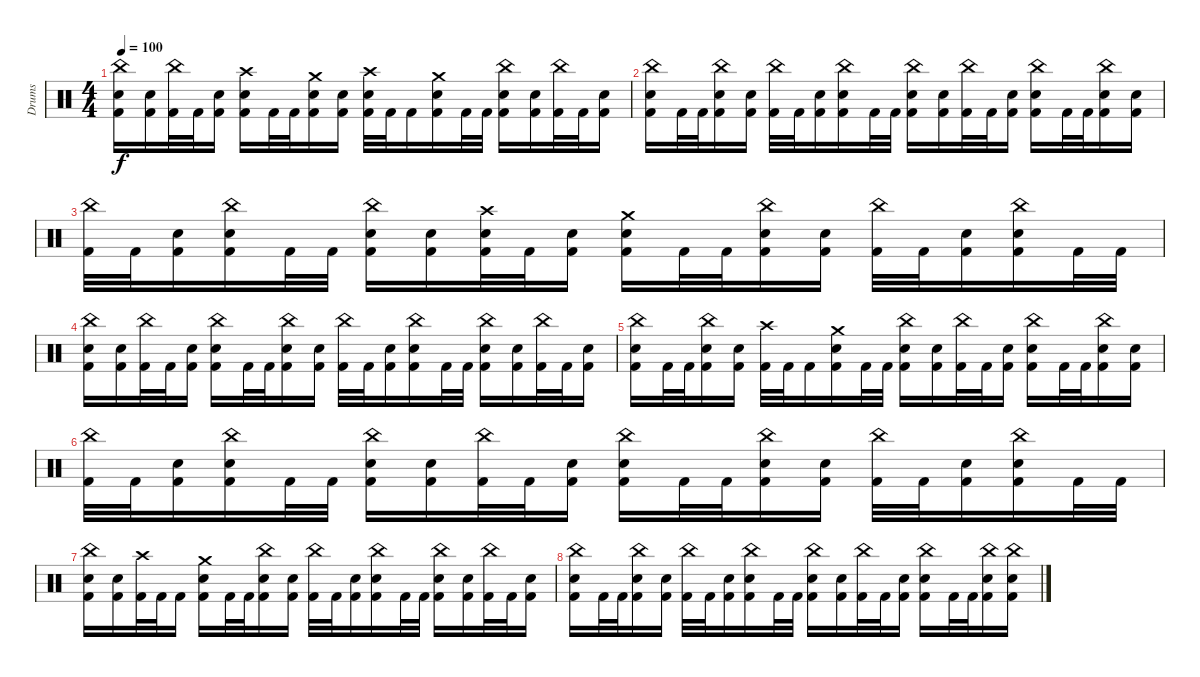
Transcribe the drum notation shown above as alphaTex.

\track ("Drums" "Drums") {instrument percussion}
\staff
\articulation defaults
\ts (4 4)
\tempo 100
\clef neutral
\ks c
("China (hit)" "Electric Snare (hit)" "Kick (hit) 2").16{dy f} ("Electric Snare (hit)" "Kick (hit) 2").16 ("China (hit)" "Kick (hit) 2").32 "Kick (hit) 2".32 ("Electric Snare (hit)" "Kick (hit) 2").16 ("Crash high (hit)" "Electric Snare (hit)" "Kick (hit) 2").16 "Kick (hit) 2".32 "Kick (hit) 2".32 ("Crash medium (hit)" "Electric Snare (hit)" "Kick (hit) 2").16 ("Electric Snare (hit)" "Kick (hit) 2").16 ("Crash high (hit)" "Electric Snare (hit)" "Kick (hit) 2").32 "Kick (hit) 2".32 "Kick (hit) 2".16 ("Crash medium (hit)" "Electric Snare (hit)" "Kick (hit) 2").16 "Kick (hit) 2".32 "Kick (hit) 2".32 ("China (hit)" "Electric Snare (hit)" "Kick (hit) 2").16 ("Electric Snare (hit)" "Kick (hit) 2").16 ("China (hit)" "Kick (hit) 2").32 "Kick (hit) 2".32 ("Electric Snare (hit)" "Kick (hit) 2").16 |
("China (hit)" "Electric Snare (hit)" "Kick (hit) 2").16 "Kick (hit) 2".32 "Kick (hit) 2".32 ("China (hit)" "Electric Snare (hit)" "Kick (hit) 2").16 ("Electric Snare (hit)" "Kick (hit) 2").16 ("China (hit)" "Kick (hit) 2").32 "Kick (hit) 2".32 ("Electric Snare (hit)" "Kick (hit) 2").16 ("China (hit)" "Electric Snare (hit)" "Kick (hit) 2").16 "Kick (hit) 2".32 "Kick (hit) 2".32 ("China (hit)" "Electric Snare (hit)" "Kick (hit) 2").16 ("Electric Snare (hit)" "Kick (hit) 2").16 ("China (hit)" "Kick (hit) 2").32 "Kick (hit) 2".32 ("Electric Snare (hit)" "Kick (hit) 2").16 ("China (hit)" "Electric Snare (hit)" "Kick (hit) 2").16 "Kick (hit) 2".32 "Kick (hit) 2".32 ("China (hit)" "Electric Snare (hit)" "Kick (hit) 2").16 ("Electric Snare (hit)" "Kick (hit) 2").16 |
("China (hit)" "Kick (hit) 2").32 "Kick (hit) 2".32 ("Electric Snare (hit)" "Kick (hit) 2").16 ("China (hit)" "Electric Snare (hit)" "Kick (hit) 2").16 "Kick (hit) 2".32 "Kick (hit) 2".32 ("China (hit)" "Electric Snare (hit)" "Kick (hit) 2").16 ("Electric Snare (hit)" "Kick (hit) 2").16 ("Crash high (hit)" "Electric Snare (hit)" "Kick (hit) 2").32 "Kick (hit) 2".32 ("Electric Snare (hit)" "Kick (hit) 2").16 ("Crash medium (hit)" "Electric Snare (hit)" "Kick (hit) 2").16 "Kick (hit) 2".32 "Kick (hit) 2".32 ("China (hit)" "Electric Snare (hit)" "Kick (hit) 2").16 ("Electric Snare (hit)" "Kick (hit) 2").16 ("China (hit)" "Kick (hit) 2").32 "Kick (hit) 2".32 ("Electric Snare (hit)" "Kick (hit) 2").16 ("China (hit)" "Electric Snare (hit)" "Kick (hit) 2").16 "Kick (hit) 2".32 "Kick (hit) 2".32 |
("China (hit)" "Electric Snare (hit)" "Kick (hit) 2").16 ("Electric Snare (hit)" "Kick (hit) 2").16 ("China (hit)" "Kick (hit) 2").32 "Kick (hit) 2".32 ("Electric Snare (hit)" "Kick (hit) 2").16 ("China (hit)" "Electric Snare (hit)" "Kick (hit) 2").16 "Kick (hit) 2".32 "Kick (hit) 2".32 ("China (hit)" "Electric Snare (hit)" "Kick (hit) 2").16 ("Electric Snare (hit)" "Kick (hit) 2").16 ("China (hit)" "Kick (hit) 2").32 "Kick (hit) 2".32 ("Electric Snare (hit)" "Kick (hit) 2").16 ("China (hit)" "Electric Snare (hit)" "Kick (hit) 2").16 "Kick (hit) 2".32 "Kick (hit) 2".32 ("China (hit)" "Electric Snare (hit)" "Kick (hit) 2").16 ("Electric Snare (hit)" "Kick (hit) 2").16 ("China (hit)" "Kick (hit) 2").32 "Kick (hit) 2".32 ("Electric Snare (hit)" "Kick (hit) 2").16 |
("China (hit)" "Electric Snare (hit)" "Kick (hit) 2").16 "Kick (hit) 2".32 "Kick (hit) 2".32 ("China (hit)" "Electric Snare (hit)" "Kick (hit) 2").16 ("Electric Snare (hit)" "Kick (hit) 2").16 ("Crash high (hit)" "Kick (hit) 2").32 "Kick (hit) 2".32 "Kick (hit) 2".16 ("Crash medium (hit)" "Electric Snare (hit)" "Kick (hit) 2").16 "Kick (hit) 2".32 "Kick (hit) 2".32 ("China (hit)" "Electric Snare (hit)" "Kick (hit) 2").16 ("Electric Snare (hit)" "Kick (hit) 2").16 ("China (hit)" "Kick (hit) 2").32 "Kick (hit) 2".32 ("Electric Snare (hit)" "Kick (hit) 2").16 ("China (hit)" "Electric Snare (hit)" "Kick (hit) 2").16 "Kick (hit) 2".32 "Kick (hit) 2".32 ("China (hit)" "Electric Snare (hit)" "Kick (hit) 2").16 ("Electric Snare (hit)" "Kick (hit) 2").16 |
("China (hit)" "Kick (hit) 2").32 "Kick (hit) 2".32 ("Electric Snare (hit)" "Kick (hit) 2").16 ("China (hit)" "Electric Snare (hit)" "Kick (hit) 2").16 "Kick (hit) 2".32 "Kick (hit) 2".32 ("China (hit)" "Electric Snare (hit)" "Kick (hit) 2").16 ("Electric Snare (hit)" "Kick (hit) 2").16 ("China (hit)" "Kick (hit) 2").32 "Kick (hit) 2".32 ("Electric Snare (hit)" "Kick (hit) 2").16 ("China (hit)" "Electric Snare (hit)" "Kick (hit) 2").16 "Kick (hit) 2".32 "Kick (hit) 2".32 ("China (hit)" "Electric Snare (hit)" "Kick (hit) 2").16 ("Electric Snare (hit)" "Kick (hit) 2").16 ("China (hit)" "Kick (hit) 2").32 "Kick (hit) 2".32 ("Electric Snare (hit)" "Kick (hit) 2").16 ("China (hit)" "Electric Snare (hit)" "Kick (hit) 2").16 "Kick (hit) 2".32 "Kick (hit) 2".32 |
("China (hit)" "Electric Snare (hit)" "Kick (hit) 2").16 ("Electric Snare (hit)" "Kick (hit) 2").16 ("Crash high (hit)" "Kick (hit) 2").32 "Kick (hit) 2".32 "Kick (hit) 2".16 ("Crash medium (hit)" "Electric Snare (hit)" "Kick (hit) 2").16 "Kick (hit) 2".32 "Kick (hit) 2".32 ("China (hit)" "Electric Snare (hit)" "Kick (hit) 2").16 ("Electric Snare (hit)" "Kick (hit) 2").16 ("China (hit)" "Kick (hit) 2").32 "Kick (hit) 2".32 ("Electric Snare (hit)" "Kick (hit) 2").16 ("China (hit)" "Electric Snare (hit)" "Kick (hit) 2").16 "Kick (hit) 2".32 "Kick (hit) 2".32 ("China (hit)" "Electric Snare (hit)" "Kick (hit) 2").16 ("Electric Snare (hit)" "Kick (hit) 2").16 ("China (hit)" "Kick (hit) 2").32 "Kick (hit) 2".32 ("Electric Snare (hit)" "Kick (hit) 2").16 |
("China (hit)" "Electric Snare (hit)" "Kick (hit) 2").16 "Kick (hit) 2".32 "Kick (hit) 2".32 ("China (hit)" "Electric Snare (hit)" "Kick (hit) 2").16 ("Electric Snare (hit)" "Kick (hit) 2").16 ("China (hit)" "Kick (hit) 2").32 "Kick (hit) 2".32 ("Electric Snare (hit)" "Kick (hit) 2").16 ("China (hit)" "Electric Snare (hit)" "Kick (hit) 2").16 "Kick (hit) 2".32 "Kick (hit) 2".32 ("China (hit)" "Electric Snare (hit)" "Kick (hit) 2").16 ("Electric Snare (hit)" "Kick (hit) 2").16 ("China (hit)" "Kick (hit) 2").32 "Kick (hit) 2".32 ("Electric Snare (hit)" "Kick (hit) 2").16 ("China (hit)" "Electric Snare (hit)" "Kick (hit) 2").16 "Kick (hit) 2".32 "Kick (hit) 2".32 ("China (hit)" "Electric Snare (hit)" "Kick (hit) 2").16 ("China (hit)" "Electric Snare (hit)" "Kick (hit) 2").16
